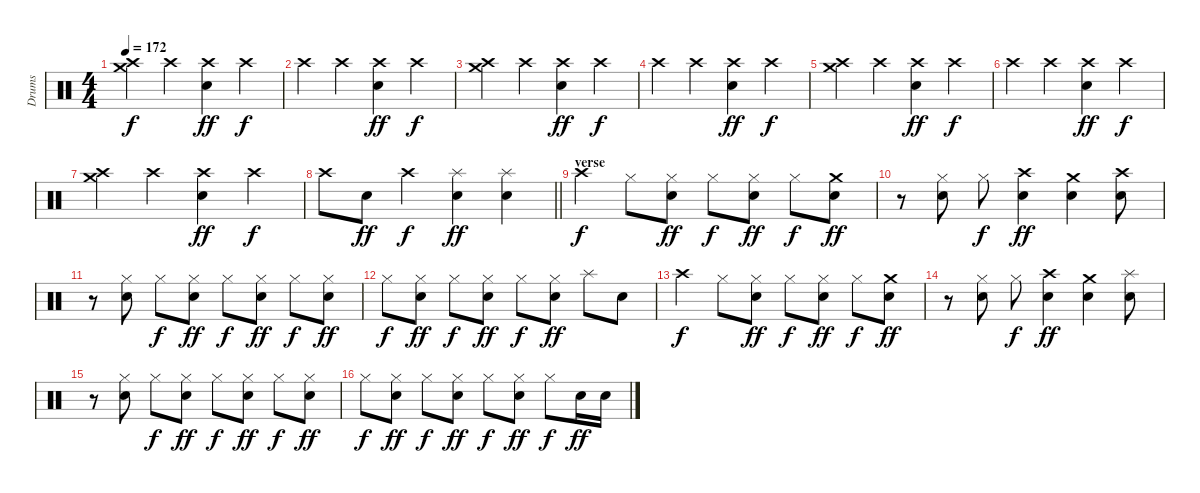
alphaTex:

\track ("Drums" "Drums") {instrument percussion}
\staff {score}
\articulation defaults
\ts (4 4)
\tempo 172
\clef neutral
\ks c
("Crash high (hit)" "Crash medium (hit)").4{dy f} "Crash high (hit)".4 ("Crash high (hit)" "Snare (hit) 2").4{dy ff} "Crash high (hit)".4{dy f} |
"Crash high (hit)".4 "Crash high (hit)".4 ("Crash high (hit)" "Snare (hit) 2").4{dy ff} "Crash high (hit)".4{dy f} |
("Crash high (hit)" "Crash medium (hit)").4 "Crash high (hit)".4 ("Crash high (hit)" "Snare (hit) 2").4{dy ff} "Crash high (hit)".4{dy f} |
"Crash high (hit)".4 "Crash high (hit)".4 ("Crash high (hit)" "Snare (hit) 2").4{dy ff} "Crash high (hit)".4{dy f} |
("Crash high (hit)" "Crash medium (hit)").4 "Crash high (hit)".4 ("Crash high (hit)" "Snare (hit) 2").4{dy ff} "Crash high (hit)".4{dy f} |
"Crash high (hit)".4 "Crash high (hit)".4 ("Crash high (hit)" "Snare (hit) 2").4{dy ff} "Crash high (hit)".4{dy f} |
("Crash high (hit)" "Crash medium (hit)").4 "Crash high (hit)".4 ("Crash high (hit)" "Snare (hit) 2").4{dy ff} "Crash high (hit)".4{dy f} |
\barLineRight lightlight "Crash high (hit)".8 "Snare (hit) 2".8{dy ff} "Crash high (hit)".4{dy f}
("Splash (hit)" "Snare (hit) 2").4{dy ff} ("Splash (hit)" "Snare (hit) 2").4 |
\section ("" "verse")
"Crash high (hit)".4{dy f} "Hi-Hat (closed)".8 ("Hi-Hat (closed)" "Snare (hit) 2").8{dy ff} "Hi-Hat (closed)".8{dy f} ("Hi-Hat (closed)" "Snare (hit) 2").8{dy ff} "Hi-Hat (closed)".8{dy f} ("Crash medium (hit)" "Snare (hit) 2").8{dy ff} |
r.8 ("Hi-Hat (closed)" "Snare (hit) 2").8 "Hi-Hat (closed)".8{dy f} ("Crash high (hit)" "Snare (hit) 2").4{dy ff} ("Crash medium (hit)" "Snare (hit) 2").4 ("Crash high (hit)" "Snare (hit) 2").8 |
r.8 ("Hi-Hat (closed)" "Snare (hit) 2").8 "Hi-Hat (closed)".8{dy f} ("Hi-Hat (closed)" "Snare (hit) 2").8{dy ff} "Hi-Hat (closed)".8{dy f} ("Hi-Hat (closed)" "Snare (hit) 2").8{dy ff} "Hi-Hat (closed)".8{dy f} ("Hi-Hat (closed)" "Snare (hit) 2").8{dy ff} |
"Hi-Hat (closed)".8{dy f} ("Hi-Hat (closed)" "Snare (hit) 2").8{dy ff} "Hi-Hat (closed)".8{dy f} ("Hi-Hat (closed)" "Snare (hit) 2").8{dy ff} "Hi-Hat (closed)".8{dy f} ("Hi-Hat (closed)" "Snare (hit) 2").8{dy ff} "Splash (hit)".8 "Snare (hit) 2".8 |
"Crash high (hit)".4{dy f} "Hi-Hat (closed)".8 ("Hi-Hat (closed)" "Snare (hit) 2").8{dy ff} "Hi-Hat (closed)".8{dy f} ("Hi-Hat (closed)" "Snare (hit) 2").8{dy ff} "Hi-Hat (closed)".8{dy f} ("Crash medium (hit)" "Snare (hit) 2").8{dy ff} |
r.8 ("Hi-Hat (closed)" "Snare (hit) 2").8 "Hi-Hat (closed)".8{dy f} ("Crash high (hit)" "Snare (hit) 2").4{dy ff} ("Crash medium (hit)" "Snare (hit) 2").4 ("Splash (hit)" "Snare (hit) 2").8 |
r.8 ("Hi-Hat (closed)" "Snare (hit) 2").8 "Hi-Hat (closed)".8{dy f} ("Hi-Hat (closed)" "Snare (hit) 2").8{dy ff} "Hi-Hat (closed)".8{dy f} ("Hi-Hat (closed)" "Snare (hit) 2").8{dy ff} "Hi-Hat (closed)".8{dy f} ("Hi-Hat (closed)" "Snare (hit) 2").8{dy ff} |
"Hi-Hat (closed)".8{dy f} ("Hi-Hat (closed)" "Snare (hit) 2").8{dy ff} "Hi-Hat (closed)".8{dy f} ("Hi-Hat (closed)" "Snare (hit) 2").8{dy ff} "Hi-Hat (closed)".8{dy f} ("Hi-Hat (closed)" "Snare (hit) 2").8{dy ff} "Hi-Hat (closed)".8{dy f} "Snare (hit) 2".16{dy ff} "Snare (hit) 2".16
